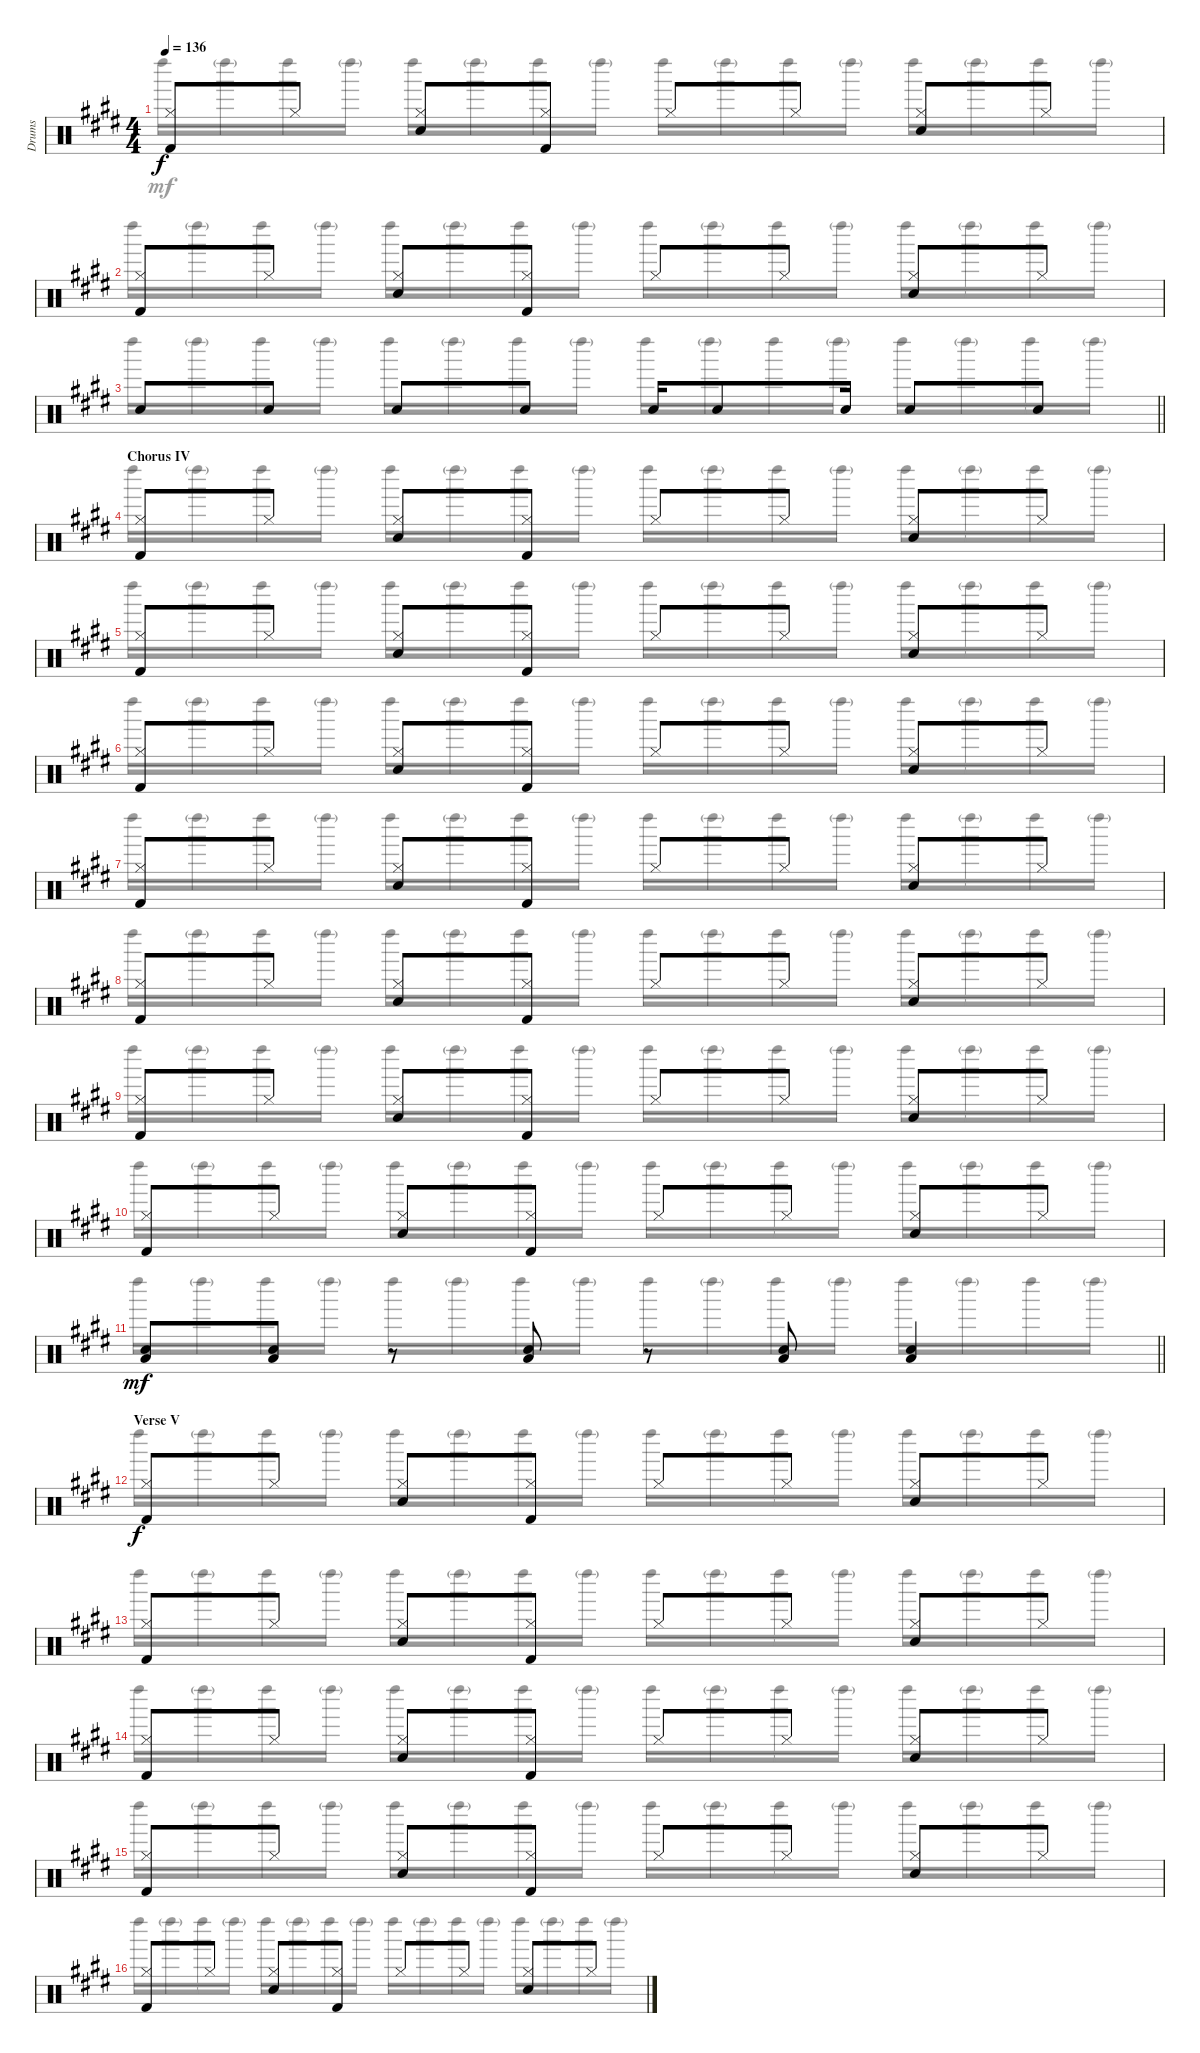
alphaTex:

\track ("Drums" "Drums") {instrument percussion}
\staff {score}
\articulation defaults
\voice
\ts (4 4)
\tempo 136
\clef neutral
\ks e
("Hi-Hat (closed)" "Kick (hit) 2").8{dy f} "Hi-Hat (closed)".8 ("Hi-Hat (closed)" "Snare (hit) 2").8 ("Hi-Hat (closed)" "Kick (hit) 2").8 "Hi-Hat (closed)".8 "Hi-Hat (closed)".8 ("Hi-Hat (closed)" "Snare (hit) 2").8 "Hi-Hat (closed)".8 |
("Hi-Hat (closed)" "Kick (hit) 2").8 "Hi-Hat (closed)".8 ("Hi-Hat (closed)" "Snare (hit) 2").8 ("Hi-Hat (closed)" "Kick (hit) 2").8 "Hi-Hat (closed)".8 "Hi-Hat (closed)".8 ("Hi-Hat (closed)" "Snare (hit) 2").8 "Hi-Hat (closed)".8 |
\barLineRight lightlight "Snare (hit) 2".8 "Snare (hit) 2".8 "Snare (hit) 2".8 "Snare (hit) 2".8 "Snare (hit) 2".16 "Electric Snare (hit)".8 "Snare (hit) 2".16 "Electric Snare (hit)".8 "Snare (hit) 2".8
|
\section ("" "Chorus IV")
("Hi-Hat (closed)" "Kick (hit) 2").8 "Hi-Hat (closed)".8 ("Hi-Hat (closed)" "Snare (hit) 2").8 ("Hi-Hat (closed)" "Kick (hit) 2").8 "Hi-Hat (closed)".8 "Hi-Hat (closed)".8 ("Hi-Hat (closed)" "Snare (hit) 2").8 "Hi-Hat (closed)".8 |
("Hi-Hat (closed)" "Kick (hit) 2").8 "Hi-Hat (closed)".8 ("Hi-Hat (closed)" "Snare (hit) 2").8 ("Hi-Hat (closed)" "Kick (hit) 2").8 "Hi-Hat (closed)".8 "Hi-Hat (closed)".8 ("Hi-Hat (closed)" "Snare (hit) 2").8 "Hi-Hat (closed)".8 |
("Hi-Hat (closed)" "Kick (hit) 2").8 "Hi-Hat (closed)".8 ("Hi-Hat (closed)" "Snare (hit) 2").8 ("Hi-Hat (closed)" "Kick (hit) 2").8 "Hi-Hat (closed)".8 "Hi-Hat (closed)".8 ("Hi-Hat (closed)" "Snare (hit) 2").8 "Hi-Hat (closed)".8 |
("Hi-Hat (closed)" "Kick (hit) 2").8 "Hi-Hat (closed)".8 ("Hi-Hat (closed)" "Snare (hit) 2").8 ("Hi-Hat (closed)" "Kick (hit) 2").8 "Hi-Hat (closed)".8 "Hi-Hat (closed)".8 ("Hi-Hat (closed)" "Snare (hit) 2").8 "Hi-Hat (closed)".8 |
("Hi-Hat (closed)" "Kick (hit) 2").8 "Hi-Hat (closed)".8 ("Hi-Hat (closed)" "Snare (hit) 2").8 ("Hi-Hat (closed)" "Kick (hit) 2").8 "Hi-Hat (closed)".8 "Hi-Hat (closed)".8 ("Hi-Hat (closed)" "Snare (hit) 2").8 "Hi-Hat (closed)".8 |
("Hi-Hat (closed)" "Kick (hit) 2").8 "Hi-Hat (closed)".8 ("Hi-Hat (closed)" "Snare (hit) 2").8 ("Hi-Hat (closed)" "Kick (hit) 2").8 "Hi-Hat (closed)".8 "Hi-Hat (closed)".8 ("Hi-Hat (closed)" "Snare (hit) 2").8 "Hi-Hat (closed)".8 |
("Hi-Hat (closed)" "Kick (hit) 2").8 "Hi-Hat (closed)".8 ("Hi-Hat (closed)" "Snare (hit) 2").8 ("Hi-Hat (closed)" "Kick (hit) 2").8 "Hi-Hat (closed)".8 "Hi-Hat (closed)".8 ("Hi-Hat (closed)" "Snare (hit) 2").8 "Hi-Hat (closed)".8 |
\barLineRight lightlight
("Low Tom (hit)" "Snare (hit) 2").8{dy mf} ("Low Tom (hit)" "Snare (hit) 2").8 r.8 ("Low Tom (hit)" "Snare (hit) 2").8 r.8 ("Low Tom (hit)" "Snare (hit) 2").8 ("Low Tom (hit)" "Snare (hit) 2").4 |
\section ("" "Verse V")
("Hi-Hat (closed)" "Kick (hit) 2").8{dy f} "Hi-Hat (closed)".8 ("Hi-Hat (closed)" "Snare (hit) 2").8 ("Hi-Hat (closed)" "Kick (hit) 2").8 "Hi-Hat (closed)".8 "Hi-Hat (closed)".8 ("Hi-Hat (closed)" "Snare (hit) 2").8 "Hi-Hat (closed)".8 |
("Hi-Hat (closed)" "Kick (hit) 2").8 "Hi-Hat (closed)".8 ("Hi-Hat (closed)" "Snare (hit) 2").8 ("Hi-Hat (closed)" "Kick (hit) 2").8 "Hi-Hat (closed)".8 "Hi-Hat (closed)".8 ("Hi-Hat (closed)" "Snare (hit) 2").8 "Hi-Hat (closed)".8 |
("Hi-Hat (closed)" "Kick (hit) 2").8 "Hi-Hat (closed)".8 ("Hi-Hat (closed)" "Snare (hit) 2").8 ("Hi-Hat (closed)" "Kick (hit) 2").8 "Hi-Hat (closed)".8 "Hi-Hat (closed)".8 ("Hi-Hat (closed)" "Snare (hit) 2").8 "Hi-Hat (closed)".8 |
("Hi-Hat (closed)" "Kick (hit) 2").8 "Hi-Hat (closed)".8 ("Hi-Hat (closed)" "Snare (hit) 2").8 ("Hi-Hat (closed)" "Kick (hit) 2").8 "Hi-Hat (closed)".8 "Hi-Hat (closed)".8 ("Hi-Hat (closed)" "Snare (hit) 2").8 "Hi-Hat (closed)".8 |
("Hi-Hat (closed)" "Kick (hit) 2").8 "Hi-Hat (closed)".8 ("Hi-Hat (closed)" "Snare (hit) 2").8 ("Hi-Hat (closed)" "Kick (hit) 2").8 "Hi-Hat (closed)".8 "Hi-Hat (closed)".8 ("Hi-Hat (closed)" "Snare (hit) 2").8 "Hi-Hat (closed)".8
\voice
\clef neutral
\ottava regular
\simile none
\ks e "Left Maraca (hit)".16{dy mf} "Left Maraca (hit)"{g}.16 "Left Maraca (hit)".16 "Left Maraca (hit)"{g}.16 "Left Maraca (hit)".16 "Left Maraca (hit)"{g}.16 "Left Maraca (hit)".16 "Left Maraca (hit)"{g}.16 "Left Maraca (hit)".16 "Left Maraca (hit)"{g}.16 "Left Maraca (hit)".16 "Left Maraca (hit)"{g}.16 "Left Maraca (hit)".16 "Left Maraca (hit)"{g}.16 "Left Maraca (hit)".16 "Left Maraca (hit)"{g}.16
|
"Left Maraca (hit)".16 "Left Maraca (hit)"{g}.16 "Left Maraca (hit)".16 "Left Maraca (hit)"{g}.16 "Left Maraca (hit)".16 "Left Maraca (hit)"{g}.16 "Left Maraca (hit)".16 "Left Maraca (hit)"{g}.16 "Left Maraca (hit)".16 "Left Maraca (hit)"{g}.16 "Left Maraca (hit)".16 "Left Maraca (hit)"{g}.16 "Left Maraca (hit)".16 "Left Maraca (hit)"{g}.16 "Left Maraca (hit)".16 "Left Maraca (hit)"{g}.16 |
\barLineRight lightlight "Left Maraca (hit)".16 "Left Maraca (hit)"{g}.16 "Left Maraca (hit)".16 "Left Maraca (hit)"{g}.16 "Left Maraca (hit)".16 "Left Maraca (hit)"{g}.16 "Left Maraca (hit)".16 "Left Maraca (hit)"{g}.16 "Left Maraca (hit)".16 "Left Maraca (hit)"{g}.16 "Left Maraca (hit)".16 "Left Maraca (hit)"{g}.16 "Left Maraca (hit)".16 "Left Maraca (hit)"{g}.16 "Left Maraca (hit)".16 "Left Maraca (hit)"{g}.16
|
"Left Maraca (hit)".16 "Left Maraca (hit)"{g}.16 "Left Maraca (hit)".16 "Left Maraca (hit)"{g}.16 "Left Maraca (hit)".16 "Left Maraca (hit)"{g}.16 "Left Maraca (hit)".16 "Left Maraca (hit)"{g}.16 "Left Maraca (hit)".16 "Left Maraca (hit)"{g}.16 "Left Maraca (hit)".16 "Left Maraca (hit)"{g}.16 "Left Maraca (hit)".16 "Left Maraca (hit)"{g}.16 "Left Maraca (hit)".16 "Left Maraca (hit)"{g}.16 |
"Left Maraca (hit)".16 "Left Maraca (hit)"{g}.16 "Left Maraca (hit)".16 "Left Maraca (hit)"{g}.16 "Left Maraca (hit)".16 "Left Maraca (hit)"{g}.16 "Left Maraca (hit)".16 "Left Maraca (hit)"{g}.16 "Left Maraca (hit)".16 "Left Maraca (hit)"{g}.16 "Left Maraca (hit)".16 "Left Maraca (hit)"{g}.16 "Left Maraca (hit)".16 "Left Maraca (hit)"{g}.16 "Left Maraca (hit)".16 "Left Maraca (hit)"{g}.16 |
"Left Maraca (hit)".16 "Left Maraca (hit)"{g}.16 "Left Maraca (hit)".16 "Left Maraca (hit)"{g}.16 "Left Maraca (hit)".16 "Left Maraca (hit)"{g}.16 "Left Maraca (hit)".16 "Left Maraca (hit)"{g}.16 "Left Maraca (hit)".16 "Left Maraca (hit)"{g}.16 "Left Maraca (hit)".16 "Left Maraca (hit)"{g}.16 "Left Maraca (hit)".16 "Left Maraca (hit)"{g}.16 "Left Maraca (hit)".16 "Left Maraca (hit)"{g}.16 |
"Left Maraca (hit)".16 "Left Maraca (hit)"{g}.16 "Left Maraca (hit)".16 "Left Maraca (hit)"{g}.16 "Left Maraca (hit)".16 "Left Maraca (hit)"{g}.16 "Left Maraca (hit)".16 "Left Maraca (hit)"{g}.16 "Left Maraca (hit)".16 "Left Maraca (hit)"{g}.16 "Left Maraca (hit)".16 "Left Maraca (hit)"{g}.16 "Left Maraca (hit)".16 "Left Maraca (hit)"{g}.16 "Left Maraca (hit)".16 "Left Maraca (hit)"{g}.16 |
"Left Maraca (hit)".16 "Left Maraca (hit)"{g}.16 "Left Maraca (hit)".16 "Left Maraca (hit)"{g}.16 "Left Maraca (hit)".16 "Left Maraca (hit)"{g}.16 "Left Maraca (hit)".16 "Left Maraca (hit)"{g}.16 "Left Maraca (hit)".16 "Left Maraca (hit)"{g}.16 "Left Maraca (hit)".16 "Left Maraca (hit)"{g}.16 "Left Maraca (hit)".16 "Left Maraca (hit)"{g}.16 "Left Maraca (hit)".16 "Left Maraca (hit)"{g}.16 |
"Left Maraca (hit)".16 "Left Maraca (hit)"{g}.16 "Left Maraca (hit)".16 "Left Maraca (hit)"{g}.16 "Left Maraca (hit)".16 "Left Maraca (hit)"{g}.16 "Left Maraca (hit)".16 "Left Maraca (hit)"{g}.16 "Left Maraca (hit)".16 "Left Maraca (hit)"{g}.16 "Left Maraca (hit)".16 "Left Maraca (hit)"{g}.16 "Left Maraca (hit)".16 "Left Maraca (hit)"{g}.16 "Left Maraca (hit)".16 "Left Maraca (hit)"{g}.16 |
"Left Maraca (hit)".16 "Left Maraca (hit)"{g}.16 "Left Maraca (hit)".16 "Left Maraca (hit)"{g}.16 "Left Maraca (hit)".16 "Left Maraca (hit)"{g}.16 "Left Maraca (hit)".16 "Left Maraca (hit)"{g}.16 "Left Maraca (hit)".16 "Left Maraca (hit)"{g}.16 "Left Maraca (hit)".16 "Left Maraca (hit)"{g}.16 "Left Maraca (hit)".16 "Left Maraca (hit)"{g}.16 "Left Maraca (hit)".16 "Left Maraca (hit)"{g}.16 |
\barLineRight lightlight "Left Maraca (hit)".16 "Left Maraca (hit)"{g}.16 "Left Maraca (hit)".16 "Left Maraca (hit)"{g}.16 "Left Maraca (hit)".16 "Left Maraca (hit)"{g}.16 "Left Maraca (hit)".16 "Left Maraca (hit)"{g}.16 "Left Maraca (hit)".16 "Left Maraca (hit)"{g}.16 "Left Maraca (hit)".16 "Left Maraca (hit)"{g}.16 "Left Maraca (hit)".16 "Left Maraca (hit)"{g}.16 "Left Maraca (hit)".16 "Left Maraca (hit)"{g}.16
|
"Left Maraca (hit)".16 "Left Maraca (hit)"{g}.16 "Left Maraca (hit)".16 "Left Maraca (hit)"{g}.16 "Left Maraca (hit)".16 "Left Maraca (hit)"{g}.16 "Left Maraca (hit)".16 "Left Maraca (hit)"{g}.16 "Left Maraca (hit)".16 "Left Maraca (hit)"{g}.16 "Left Maraca (hit)".16 "Left Maraca (hit)"{g}.16 "Left Maraca (hit)".16 "Left Maraca (hit)"{g}.16 "Left Maraca (hit)".16 "Left Maraca (hit)"{g}.16 |
"Left Maraca (hit)".16 "Left Maraca (hit)"{g}.16 "Left Maraca (hit)".16 "Left Maraca (hit)"{g}.16 "Left Maraca (hit)".16 "Left Maraca (hit)"{g}.16 "Left Maraca (hit)".16 "Left Maraca (hit)"{g}.16 "Left Maraca (hit)".16 "Left Maraca (hit)"{g}.16 "Left Maraca (hit)".16 "Left Maraca (hit)"{g}.16 "Left Maraca (hit)".16 "Left Maraca (hit)"{g}.16 "Left Maraca (hit)".16 "Left Maraca (hit)"{g}.16 |
"Left Maraca (hit)".16 "Left Maraca (hit)"{g}.16 "Left Maraca (hit)".16 "Left Maraca (hit)"{g}.16 "Left Maraca (hit)".16 "Left Maraca (hit)"{g}.16 "Left Maraca (hit)".16 "Left Maraca (hit)"{g}.16 "Left Maraca (hit)".16 "Left Maraca (hit)"{g}.16 "Left Maraca (hit)".16 "Left Maraca (hit)"{g}.16 "Left Maraca (hit)".16 "Left Maraca (hit)"{g}.16 "Left Maraca (hit)".16 "Left Maraca (hit)"{g}.16 |
"Left Maraca (hit)".16 "Left Maraca (hit)"{g}.16 "Left Maraca (hit)".16 "Left Maraca (hit)"{g}.16 "Left Maraca (hit)".16 "Left Maraca (hit)"{g}.16 "Left Maraca (hit)".16 "Left Maraca (hit)"{g}.16 "Left Maraca (hit)".16 "Left Maraca (hit)"{g}.16 "Left Maraca (hit)".16 "Left Maraca (hit)"{g}.16 "Left Maraca (hit)".16 "Left Maraca (hit)"{g}.16 "Left Maraca (hit)".16 "Left Maraca (hit)"{g}.16 |
"Left Maraca (hit)".16 "Left Maraca (hit)"{g}.16 "Left Maraca (hit)".16 "Left Maraca (hit)"{g}.16 "Left Maraca (hit)".16 "Left Maraca (hit)"{g}.16 "Left Maraca (hit)".16 "Left Maraca (hit)"{g}.16 "Left Maraca (hit)".16 "Left Maraca (hit)"{g}.16 "Left Maraca (hit)".16 "Left Maraca (hit)"{g}.16 "Left Maraca (hit)".16 "Left Maraca (hit)"{g}.16 "Left Maraca (hit)".16 "Left Maraca (hit)"{g}.16
